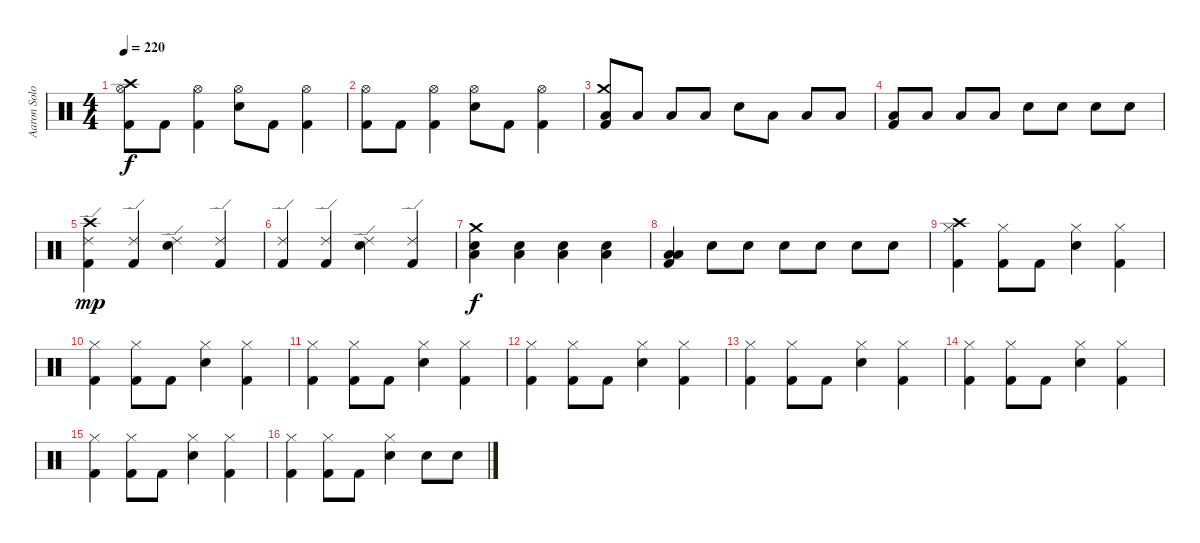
\track ("Aaron Solowoniuk" "Aaron Solo") {instrument percussion}
\staff {score}
\articulation defaults
\ts (4 4)
\tempo 220
\clef neutral
\ks c
("Crash high (hit)" "Hi-Hat (open)" "Kick (hit) 2").8{dy f} "Kick (hit) 2".8 ("Hi-Hat (open)" "Kick (hit) 2").4 ("Hi-Hat (open)" "Snare (hit) 2").8 "Kick (hit) 2".8 ("Hi-Hat (open)" "Kick (hit) 2").4 |
("Hi-Hat (open)" "Kick (hit) 2").8 "Kick (hit) 2".8 ("Hi-Hat (open)" "Kick (hit) 2").4 ("Hi-Hat (open)" "Snare (hit) 2").8 "Kick (hit) 2".8 ("Hi-Hat (open)" "Kick (hit) 2").4 |
("Crash medium (hit)" "Low Floor Tom (hit)" "Kick (hit) 2").8 "Low Floor Tom (hit)".8 "Low Floor Tom (hit)".8 "Low Tom (hit)".8 "Snare (hit) 2".8 "Low Floor Tom (hit)".8 "Low Floor Tom (hit)".8 "Low Floor Tom (hit)".8 |
("Low Tom (hit)" "Kick (hit) 2").8 "Low Floor Tom (hit)".8 "Low Floor Tom (hit)".8 "Low Floor Tom (hit)".8 "Snare (hit) 2".8 "Snare (hit) 2".8 "Snare (hit) 2".8 "Snare (hit) 2".8 |
("Crash high (hit)" "Ride (edge) 2" "Kick (hit) 2").4{dy mp} ("Ride (edge) 2" "Kick (hit) 2").4 ("Ride (edge) 2" "Snare (hit) 2").4 ("Ride (edge) 2" "Kick (hit) 2").4 |
("Ride (edge) 2" "Kick (hit) 2").4 ("Ride (edge) 2" "Kick (hit) 2").4 ("Ride (edge) 2" "Snare (hit) 2").4 ("Ride (edge) 2" "Kick (hit) 2").4 |
("Crash medium (hit)" "Low Floor Tom (hit)" "Snare (hit) 2").4{dy f} ("Low Floor Tom (hit)" "Snare (hit) 2").4 ("Low Floor Tom (hit)" "Snare (hit) 2").4 ("Low Floor Tom (hit)" "Snare (hit) 2").4 |
("Low Floor Tom (hit)" "Low Tom (hit)" "Kick (hit) 2").4 "Snare (hit) 2".8 "Snare (hit) 2".8 "Snare (hit) 2".8 "Snare (hit) 2".8 "Snare (hit) 2".8 "Snare (hit) 2".8 |
("Crash high (hit)" "Hi-Hat (closed)" "Kick (hit) 2").4 ("Hi-Hat (closed)" "Kick (hit) 2").8 "Kick (hit) 2".8 ("Hi-Hat (closed)" "Snare (hit) 2").4 ("Hi-Hat (closed)" "Kick (hit) 2").4 |
("Hi-Hat (closed)" "Kick (hit) 2").4 ("Hi-Hat (closed)" "Kick (hit) 2").8 "Kick (hit) 2".8 ("Hi-Hat (closed)" "Snare (hit) 2").4 ("Hi-Hat (closed)" "Kick (hit) 2").4 |
("Hi-Hat (closed)" "Kick (hit) 2").4 ("Hi-Hat (closed)" "Kick (hit) 2").8 "Kick (hit) 2".8 ("Hi-Hat (closed)" "Snare (hit) 2").4 ("Hi-Hat (closed)" "Kick (hit) 2").4 |
("Hi-Hat (closed)" "Kick (hit) 2").4 ("Hi-Hat (closed)" "Kick (hit) 2").8 "Kick (hit) 2".8 ("Hi-Hat (closed)" "Snare (hit) 2").4 ("Hi-Hat (closed)" "Kick (hit) 2").4 |
("Hi-Hat (closed)" "Kick (hit) 2").4 ("Hi-Hat (closed)" "Kick (hit) 2").8 "Kick (hit) 2".8 ("Hi-Hat (closed)" "Snare (hit) 2").4 ("Hi-Hat (closed)" "Kick (hit) 2").4 |
("Hi-Hat (closed)" "Kick (hit) 2").4 ("Hi-Hat (closed)" "Kick (hit) 2").8 "Kick (hit) 2".8 ("Hi-Hat (closed)" "Snare (hit) 2").4 ("Hi-Hat (closed)" "Kick (hit) 2").4 |
("Hi-Hat (closed)" "Kick (hit) 2").4 ("Hi-Hat (closed)" "Kick (hit) 2").8 "Kick (hit) 2".8 ("Hi-Hat (closed)" "Snare (hit) 2").4 ("Hi-Hat (closed)" "Kick (hit) 2").4 |
("Hi-Hat (closed)" "Kick (hit) 2").4 ("Hi-Hat (closed)" "Kick (hit) 2").8 "Kick (hit) 2".8 ("Hi-Hat (closed)" "Snare (hit) 2").4 "Snare (hit) 2".8 "Snare (hit) 2".8
